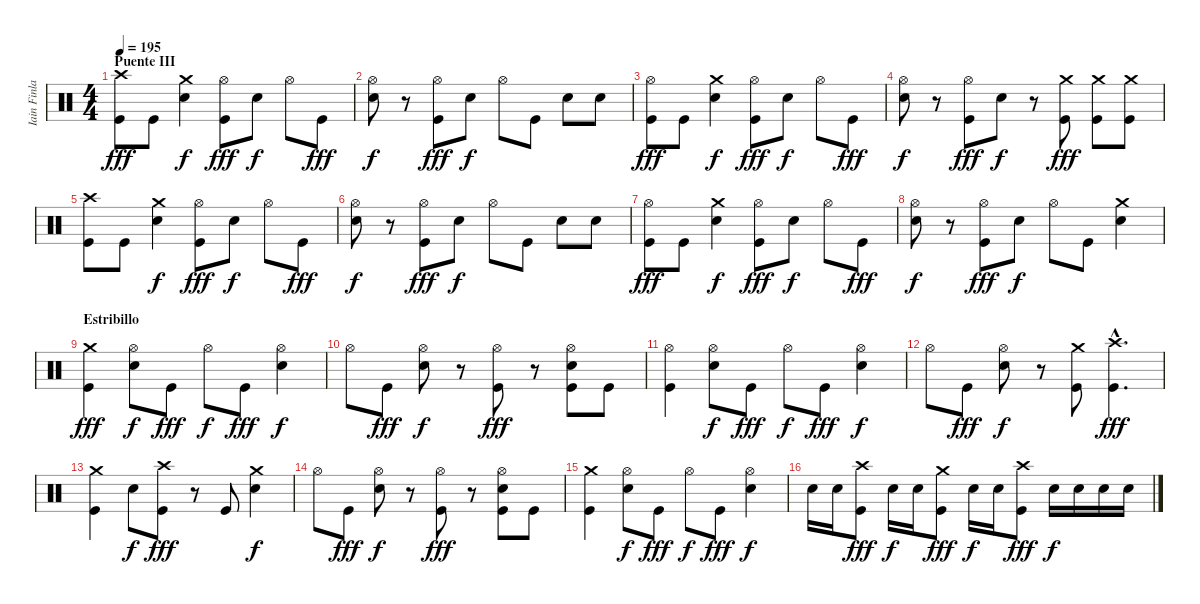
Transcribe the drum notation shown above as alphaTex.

\track ("Iain Finlay (Batería)" "Iain Finla") {instrument percussion}
\staff {score}
\articulation defaults
\ts (4 4)
\section ("" "Puente III")
\tempo 195
\clef neutral
\ks c
("Crash high (hit)" "Kick (hit)").8{dy fff} "Kick (hit)".8 ("Crash medium (hit)" "Electric Snare (hit)").4{dy f} ("Hi-Hat (open)" "Kick (hit)").8{dy fff} "Electric Snare (hit)".8{dy f} "Hi-Hat (open)".8 "Kick (hit)".8{dy fff} |
("Hi-Hat (open)" "Electric Snare (hit)").8{dy f} r.8 ("Hi-Hat (open)" "Kick (hit)").8{dy fff} "Electric Snare (hit)".8{dy f} "Hi-Hat (open)".8 "Kick (hit)".8 "Electric Snare (hit)".8 "Electric Snare (hit)".8 |
("Hi-Hat (open)" "Kick (hit)").8{dy fff} "Kick (hit)".8 ("Crash medium (hit)" "Electric Snare (hit)").4{dy f} ("Hi-Hat (open)" "Kick (hit)").8{dy fff} "Electric Snare (hit)".8{dy f} "Hi-Hat (open)".8 "Kick (hit)".8{dy fff} |
("Hi-Hat (open)" "Electric Snare (hit)").8{dy f} r.8 ("Hi-Hat (open)" "Kick (hit)").8{dy fff} "Electric Snare (hit)".8{dy f} r.8 ("Crash medium (hit)" "Kick (hit)").8{dy fff} ("Crash medium (hit)" "Kick (hit)").8 ("Crash medium (hit)" "Kick (hit)").8 |
("Crash high (hit)" "Kick (hit)").8 "Kick (hit)".8 ("Crash medium (hit)" "Electric Snare (hit)").4{dy f} ("Hi-Hat (open)" "Kick (hit)").8{dy fff} "Electric Snare (hit)".8{dy f} "Hi-Hat (open)".8 "Kick (hit)".8{dy fff} |
("Hi-Hat (open)" "Electric Snare (hit)").8{dy f} r.8 ("Hi-Hat (open)" "Kick (hit)").8{dy fff} "Electric Snare (hit)".8{dy f} "Hi-Hat (open)".8 "Kick (hit)".8 "Electric Snare (hit)".8 "Electric Snare (hit)".8 |
("Hi-Hat (open)" "Kick (hit)").8{dy fff} "Kick (hit)".8 ("Crash medium (hit)" "Electric Snare (hit)").4{dy f} ("Hi-Hat (open)" "Kick (hit)").8{dy fff} "Electric Snare (hit)".8{dy f} "Hi-Hat (open)".8 "Kick (hit)".8{dy fff} |
("Hi-Hat (open)" "Electric Snare (hit)").8{dy f} r.8 ("Hi-Hat (open)" "Kick (hit)").8{dy fff} "Electric Snare (hit)".8{dy f} "Hi-Hat (open)".8 "Kick (hit)".8 ("Crash medium (hit)" "Electric Snare (hit)").4 |
\section ("" "Estribillo")
("Crash medium (hit)" "Kick (hit)").4{dy fff} ("Hi-Hat (open)" "Electric Snare (hit)").8{dy f} "Kick (hit)".8{dy fff} "Hi-Hat (open)".8{dy f} "Kick (hit)".8{dy fff} ("Hi-Hat (open)" "Electric Snare (hit)").4{dy f} |
"Hi-Hat (open)".8 "Kick (hit)".8{dy fff} ("Hi-Hat (open)" "Electric Snare (hit)").8{dy f} r.8 ("Hi-Hat (open)" "Kick (hit)").8{dy fff} r.8 ("Hi-Hat (open)" "Electric Snare (hit)" "Kick (hit)").8 "Kick (hit)".8 |
("Hi-Hat (open)" "Kick (hit)").4 ("Hi-Hat (open)" "Electric Snare (hit)").8{dy f} "Kick (hit)".8{dy fff} "Hi-Hat (open)".8{dy f} "Kick (hit)".8{dy fff} ("Hi-Hat (open)" "Electric Snare (hit)").4{dy f} |
"Hi-Hat (open)".8 "Kick (hit)".8{dy fff} ("Hi-Hat (open)" "Electric Snare (hit)").8{dy f} r.8 ("Crash medium (hit)" "Kick (hit)").8 ("Crash high (hit)"{hac} "Kick (hit)"{hac}).4{d dy fff} |
("Crash medium (hit)" "Kick (hit)").4 "Electric Snare (hit)".8{dy f} ("Crash high (hit)" "Kick (hit)").8{dy fff} r.8 "Kick (hit)".8 ("Crash medium (hit)" "Electric Snare (hit)").4{dy f} |
"Hi-Hat (open)".8 "Kick (hit)".8{dy fff} ("Hi-Hat (open)" "Electric Snare (hit)").8{dy f} r.8 ("Hi-Hat (open)" "Kick (hit)").8{dy fff} r.8 ("Hi-Hat (open)" "Electric Snare (hit)" "Kick (hit)").8 "Kick (hit)".8 |
("Crash medium (hit)" "Kick (hit)").4 ("Hi-Hat (open)" "Electric Snare (hit)").8{dy f} "Kick (hit)".8{dy fff} "Hi-Hat (open)".8{dy f} "Kick (hit)".8{dy fff} ("Hi-Hat (open)" "Electric Snare (hit)").4{dy f} |
"Electric Snare (hit)".16 "Electric Snare (hit)".16 ("Crash high (hit)" "Kick (hit)").8{dy fff} "Electric Snare (hit)".16{dy f} "Electric Snare (hit)".16 ("Crash medium (hit)" "Kick (hit)").8{dy fff} "Electric Snare (hit)".16{dy f} "Electric Snare (hit)".16 ("Crash high (hit)" "Kick (hit)").8{dy fff} "Electric Snare (hit)".16{dy f} "Electric Snare (hit)".16 "Electric Snare (hit)".16 "Electric Snare (hit)".16
